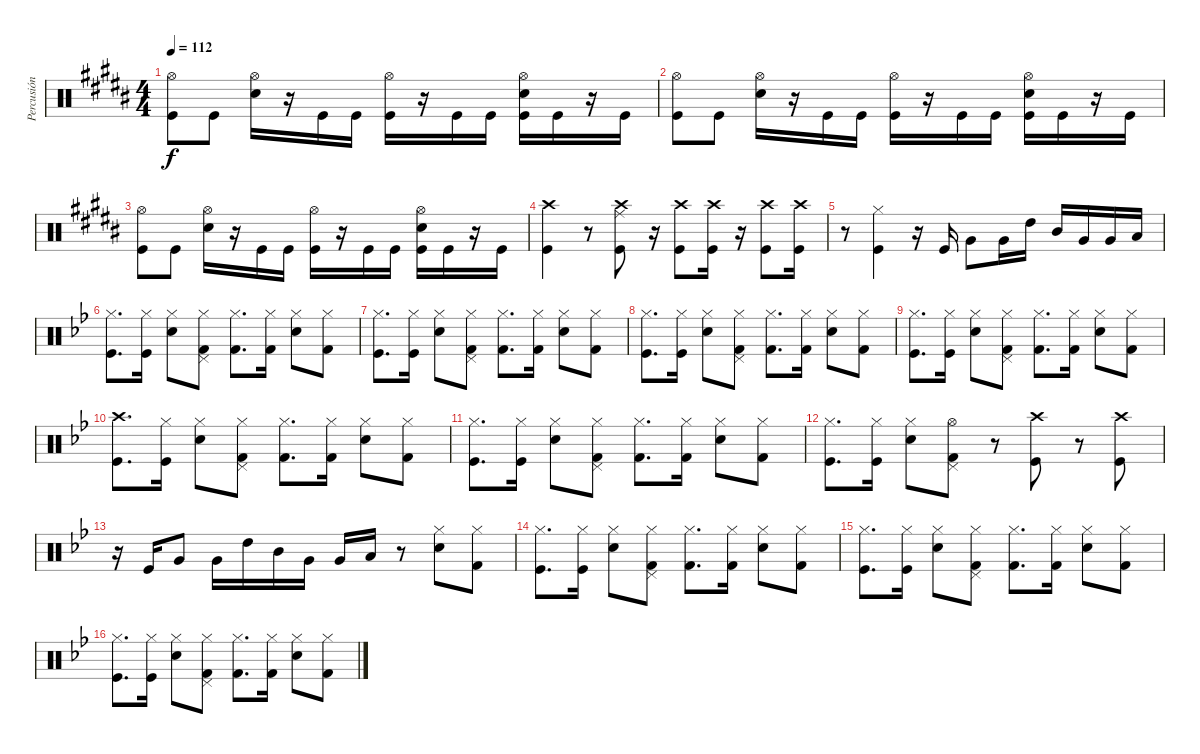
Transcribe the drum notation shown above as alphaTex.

\track ("Percusión" "Percusión") {instrument percussion}
\staff {score}
\articulation defaults
\ts (4 4)
\tempo 112
\clef neutral
\ks b
("Hi-Hat (open)" "Kick (hit)").8{dy f} "Kick (hit)".8 ("Hi-Hat (open)" "Snare (hit) 2").16 r.16 "Kick (hit)".16 "Kick (hit)".16 ("Hi-Hat (open)" "Kick (hit)").16 r.16 "Kick (hit)".16 "Kick (hit)".16 ("Hi-Hat (open)" "Snare (hit) 2" "Kick (hit)").16 "Kick (hit)".16 r.16 "Kick (hit)".16 |
("Hi-Hat (open)" "Kick (hit)").8 "Kick (hit)".8 ("Hi-Hat (open)" "Snare (hit) 2").16 r.16 "Kick (hit)".16 "Kick (hit)".16 ("Hi-Hat (open)" "Kick (hit)").16 r.16 "Kick (hit)".16 "Kick (hit)".16 ("Hi-Hat (open)" "Snare (hit) 2" "Kick (hit)").16 "Kick (hit)".16 r.16 "Kick (hit)".16 |
("Hi-Hat (open)" "Kick (hit)").8 "Kick (hit)".8 ("Hi-Hat (open)" "Snare (hit) 2").16 r.16 "Kick (hit)".16 "Kick (hit)".16 ("Hi-Hat (open)" "Kick (hit)").16 r.16 "Kick (hit)".16 "Kick (hit)".16 ("Hi-Hat (open)" "Snare (hit) 2" "Kick (hit)").16 "Kick (hit)".16 r.16 "Kick (hit)".16 |
("Crash high (hit)" "Kick (hit)").4 r.8 ("Ride (middle)" "Crash high (hit)" "Kick (hit)").8 r.16 ("Crash high (hit)" "Kick (hit)").8 ("Kick (hit)" "Crash high (hit)").16 r.16 ("Crash high (hit)" "Kick (hit)").8 ("Kick (hit)" "Crash high (hit)").16 |
r.8 ("Hi-Hat (closed)" "Kick (hit)").4 r.16 "Kick (hit)".16 "Very Low Tom (hit)".8 "Very Low Tom (hit)".16 "High Tom (hit)".16 "Mid Tom (hit)".16 "Very Low Tom (hit)".16 "Very Low Tom (hit)".16 "Low Floor Tom (hit)".16 |
\ks bb
("Hi-Hat (closed)" "Kick (hit)").8{d} ("Kick (hit)" "Hi-Hat (closed)").16 ("Hi-Hat (closed)" "Snare (hit) 2").8 ("Hi-Hat (closed)" "Kick (hit) 2" "Pedal Hi-Hat (hit)").8 ("Kick (hit) 2" "Hi-Hat (closed)").8{d} ("Kick (hit) 2" "Hi-Hat (closed)").16 ("Snare (hit) 2" "Hi-Hat (closed)").8 ("Hi-Hat (closed)" "Kick (hit) 2").8 |
("Hi-Hat (closed)" "Kick (hit)").8{d} ("Kick (hit)" "Hi-Hat (closed)").16 ("Hi-Hat (closed)" "Snare (hit) 2").8 ("Hi-Hat (closed)" "Kick (hit) 2" "Pedal Hi-Hat (hit)").8 ("Kick (hit) 2" "Hi-Hat (closed)").8{d} ("Kick (hit) 2" "Hi-Hat (closed)").16 ("Snare (hit) 2" "Hi-Hat (closed)").8 ("Hi-Hat (closed)" "Kick (hit) 2").8 |
("Hi-Hat (closed)" "Kick (hit)").8{d} ("Kick (hit)" "Hi-Hat (closed)").16 ("Hi-Hat (closed)" "Snare (hit) 2").8 ("Hi-Hat (closed)" "Kick (hit) 2" "Pedal Hi-Hat (hit)").8 ("Kick (hit) 2" "Hi-Hat (closed)").8{d} ("Kick (hit) 2" "Hi-Hat (closed)").16 ("Snare (hit) 2" "Hi-Hat (closed)").8 ("Hi-Hat (closed)" "Kick (hit) 2").8 |
("Hi-Hat (closed)" "Kick (hit)").8{d} ("Kick (hit)" "Hi-Hat (closed)").16 ("Hi-Hat (closed)" "Snare (hit) 2").8 ("Hi-Hat (closed)" "Kick (hit) 2" "Pedal Hi-Hat (hit)").8 ("Kick (hit) 2" "Hi-Hat (closed)").8{d} ("Kick (hit) 2" "Hi-Hat (closed)").16 ("Snare (hit) 2" "Hi-Hat (closed)").8 ("Hi-Hat (closed)" "Kick (hit) 2").8 |
("Crash high (hit)" "Kick (hit)").8{d} ("Kick (hit)" "Hi-Hat (closed)").16 ("Hi-Hat (closed)" "Snare (hit) 2").8 ("Hi-Hat (closed)" "Kick (hit) 2" "Pedal Hi-Hat (hit)").8 ("Kick (hit) 2" "Hi-Hat (closed)").8{d} ("Kick (hit) 2" "Hi-Hat (closed)").16 ("Snare (hit) 2" "Hi-Hat (closed)").8 ("Hi-Hat (closed)" "Kick (hit) 2").8 |
("Hi-Hat (closed)" "Kick (hit)").8{d} ("Kick (hit)" "Hi-Hat (closed)").16 ("Hi-Hat (closed)" "Snare (hit) 2").8 ("Hi-Hat (closed)" "Kick (hit) 2" "Pedal Hi-Hat (hit)").8 ("Kick (hit) 2" "Hi-Hat (closed)").8{d} ("Kick (hit) 2" "Hi-Hat (closed)").16 ("Snare (hit) 2" "Hi-Hat (closed)").8 ("Hi-Hat (closed)" "Kick (hit) 2").8 |
("Hi-Hat (closed)" "Kick (hit)").8{d} ("Kick (hit)" "Hi-Hat (closed)").16 ("Hi-Hat (closed)" "Snare (hit) 2").8 ("Kick (hit) 2" "Pedal Hi-Hat (hit)" "Hi-Hat (open)").8 r.8 ("Kick (hit)" "Crash high (hit)").8 r.8 ("Crash high (hit)" "Kick (hit)").8 |
r.16 "Kick (hit)".16 "Very Low Tom (hit)".8 "Very Low Tom (hit)".16 "High Tom (hit)".16 "Mid Tom (hit)".16 "Very Low Tom (hit)".16 "Very Low Tom (hit)".16 "Low Floor Tom (hit)".16 r.8 ("Snare (hit) 2" "Hi-Hat (closed)").8 ("Hi-Hat (closed)" "Kick (hit) 2").8 |
("Hi-Hat (closed)" "Kick (hit)").8{d} ("Kick (hit)" "Hi-Hat (closed)").16 ("Hi-Hat (closed)" "Snare (hit) 2").8 ("Hi-Hat (closed)" "Kick (hit) 2" "Pedal Hi-Hat (hit)").8 ("Kick (hit) 2" "Hi-Hat (closed)").8{d} ("Kick (hit) 2" "Hi-Hat (closed)").16 ("Snare (hit) 2" "Hi-Hat (closed)").8 ("Hi-Hat (closed)" "Kick (hit) 2").8 |
("Hi-Hat (closed)" "Kick (hit)").8{d} ("Kick (hit)" "Hi-Hat (closed)").16 ("Hi-Hat (closed)" "Snare (hit) 2").8 ("Hi-Hat (closed)" "Kick (hit) 2" "Pedal Hi-Hat (hit)").8 ("Kick (hit) 2" "Hi-Hat (closed)").8{d} ("Kick (hit) 2" "Hi-Hat (closed)").16 ("Snare (hit) 2" "Hi-Hat (closed)").8 ("Hi-Hat (closed)" "Kick (hit) 2").8 |
("Hi-Hat (closed)" "Kick (hit)").8{d} ("Kick (hit)" "Hi-Hat (closed)").16 ("Hi-Hat (closed)" "Snare (hit) 2").8 ("Hi-Hat (closed)" "Kick (hit) 2" "Pedal Hi-Hat (hit)").8 ("Kick (hit) 2" "Hi-Hat (closed)").8{d} ("Kick (hit) 2" "Hi-Hat (closed)").16 ("Snare (hit) 2" "Hi-Hat (closed)").8 ("Hi-Hat (closed)" "Kick (hit) 2").8
